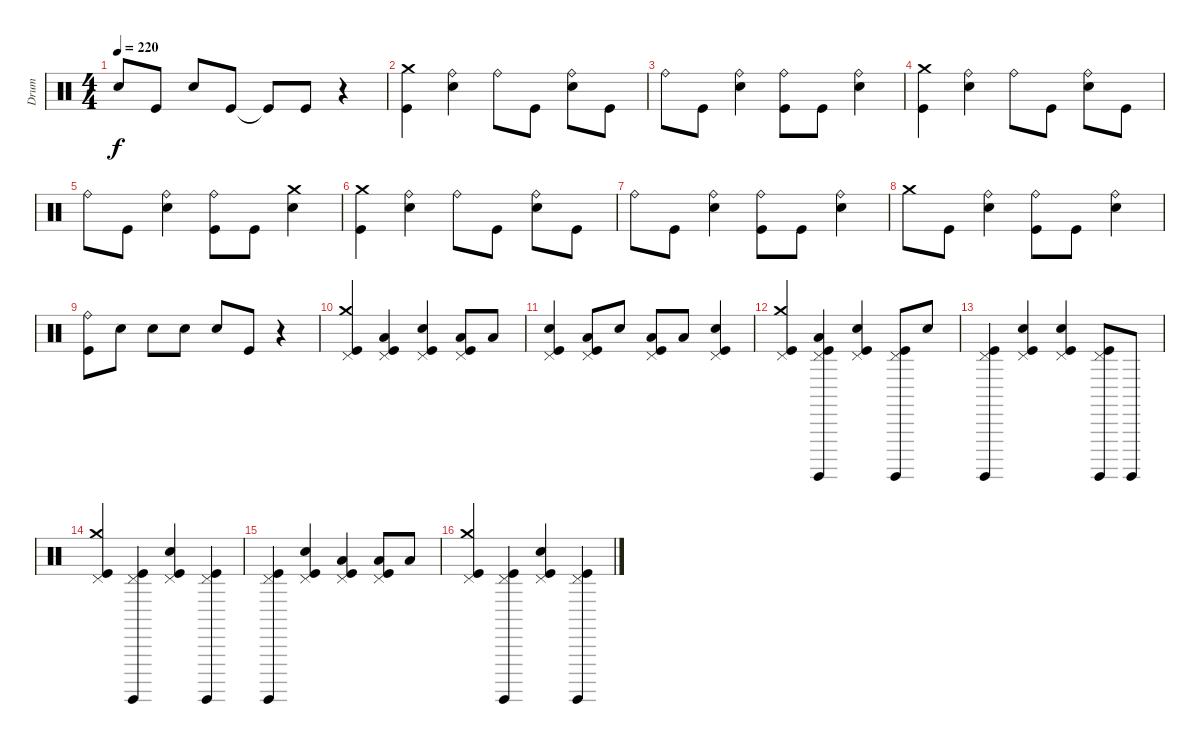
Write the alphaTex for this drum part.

\track ("Drum" "Drum") {instrument percussion}
\staff {score}
\articulation defaults
\ts (4 4)
\tempo 220
\clef neutral
\ks c "Snare (hit) 2".8{dy f} "Kick (hit)".8 "Snare (hit) 2".8 "Kick (hit)".8 "Kick (hit)"{t}.8 "Kick (hit)".8
r.4 |
("Crash medium (hit)" "Kick (hit)").4 ("Ride (bell)" "Snare (hit) 2").4 "Ride (bell)".8 "Kick (hit)".8 ("Ride (bell)" "Snare (hit) 2").8 "Kick (hit)".8 |
"Ride (bell)".8 "Kick (hit)".8 ("Ride (bell)" "Snare (hit) 2").4 ("Ride (bell)" "Kick (hit)").8 "Kick (hit)".8 ("Ride (bell)" "Snare (hit) 2").4 |
("Crash medium (hit)" "Kick (hit)").4 ("Ride (bell)" "Snare (hit) 2").4 "Ride (bell)".8 "Kick (hit)".8 ("Ride (bell)" "Snare (hit) 2").8 "Kick (hit)".8 |
"Ride (bell)".8 "Kick (hit)".8 ("Ride (bell)" "Snare (hit) 2").4 ("Ride (bell)" "Kick (hit)").8 "Kick (hit)".8 ("Crash medium (hit)" "Snare (hit) 2").4 |
("Crash medium (hit)" "Kick (hit)").4 ("Ride (bell)" "Snare (hit) 2").4 "Ride (bell)".8 "Kick (hit)".8 ("Ride (bell)" "Snare (hit) 2").8 "Kick (hit)".8 |
"Ride (bell)".8 "Kick (hit)".8 ("Ride (bell)" "Snare (hit) 2").4 ("Ride (bell)" "Kick (hit)").8 "Kick (hit)".8 ("Ride (bell)" "Snare (hit) 2").4 |
"Crash medium (hit)".8 "Kick (hit)".8 ("Ride (bell)" "Snare (hit) 2").4 ("Ride (bell)" "Kick (hit)").8 "Kick (hit)".8 ("Ride (bell)" "Snare (hit) 2").4 |
("Ride (bell)" "Kick (hit)").8 "Snare (hit) 2".8 "Snare (hit) 2".8 "Snare (hit) 2".8 "Snare (hit) 2".8 "Kick (hit)".8 r.4 |
("Crash medium (hit)" "Pedal Hi-Hat (hit)" "Kick (hit)").4 ("Pedal Hi-Hat (hit)" "Low Tom (hit)" "Kick (hit)").4 ("Pedal Hi-Hat (hit)" "Snare (hit) 2" "Kick (hit)").4 ("Pedal Hi-Hat (hit)" "Low Tom (hit)" "Kick (hit)").8 "Low Tom (hit)".8 |
("Pedal Hi-Hat (hit)" "Snare (hit) 2" "Kick (hit)").4 ("Pedal Hi-Hat (hit)" "Low Tom (hit)" "Kick (hit)").8 "Snare (hit) 2".8 ("Pedal Hi-Hat (hit)" "Low Tom (hit)" "Kick (hit)").8 "Low Tom (hit)".8 ("Pedal Hi-Hat (hit)" "Snare (hit) 2" "Kick (hit)").4 |
("Crash medium (hit)" "Pedal Hi-Hat (hit)" "Kick (hit)").4 ("Pedal Hi-Hat (hit)" "Low Tom (hit)" "Surdo (hit)" "Kick (hit)").4 ("Pedal Hi-Hat (hit)" "Snare (hit) 2" "Kick (hit)").4 ("Pedal Hi-Hat (hit)" "Surdo (hit)" "Kick (hit)").8 "Snare (hit) 2".8 |
("Pedal Hi-Hat (hit)" "Surdo (hit)" "Kick (hit)").4 ("Pedal Hi-Hat (hit)" "Snare (hit) 2" "Kick (hit)").4 ("Pedal Hi-Hat (hit)" "Snare (hit) 2" "Kick (hit)").4 ("Pedal Hi-Hat (hit)" "Surdo (hit)" "Kick (hit)").8 "Surdo (hit)".8 |
("Crash medium (hit)" "Pedal Hi-Hat (hit)" "Kick (hit)").4 ("Pedal Hi-Hat (hit)" "Surdo (hit)" "Kick (hit)").4 ("Pedal Hi-Hat (hit)" "Snare (hit) 2" "Kick (hit)").4 ("Pedal Hi-Hat (hit)" "Surdo (hit)" "Kick (hit)").4 |
("Pedal Hi-Hat (hit)" "Surdo (hit)" "Kick (hit)").4 ("Pedal Hi-Hat (hit)" "Snare (hit) 2" "Kick (hit)").4 ("Pedal Hi-Hat (hit)" "Low Tom (hit)" "Kick (hit)").4 ("Pedal Hi-Hat (hit)" "Low Tom (hit)" "Kick (hit)").8 "Low Tom (hit)".8 |
("Crash medium (hit)" "Pedal Hi-Hat (hit)" "Kick (hit)").4 ("Pedal Hi-Hat (hit)" "Surdo (hit)" "Kick (hit)").4 ("Pedal Hi-Hat (hit)" "Snare (hit) 2" "Kick (hit)").4 ("Pedal Hi-Hat (hit)" "Surdo (hit)" "Kick (hit)").4
